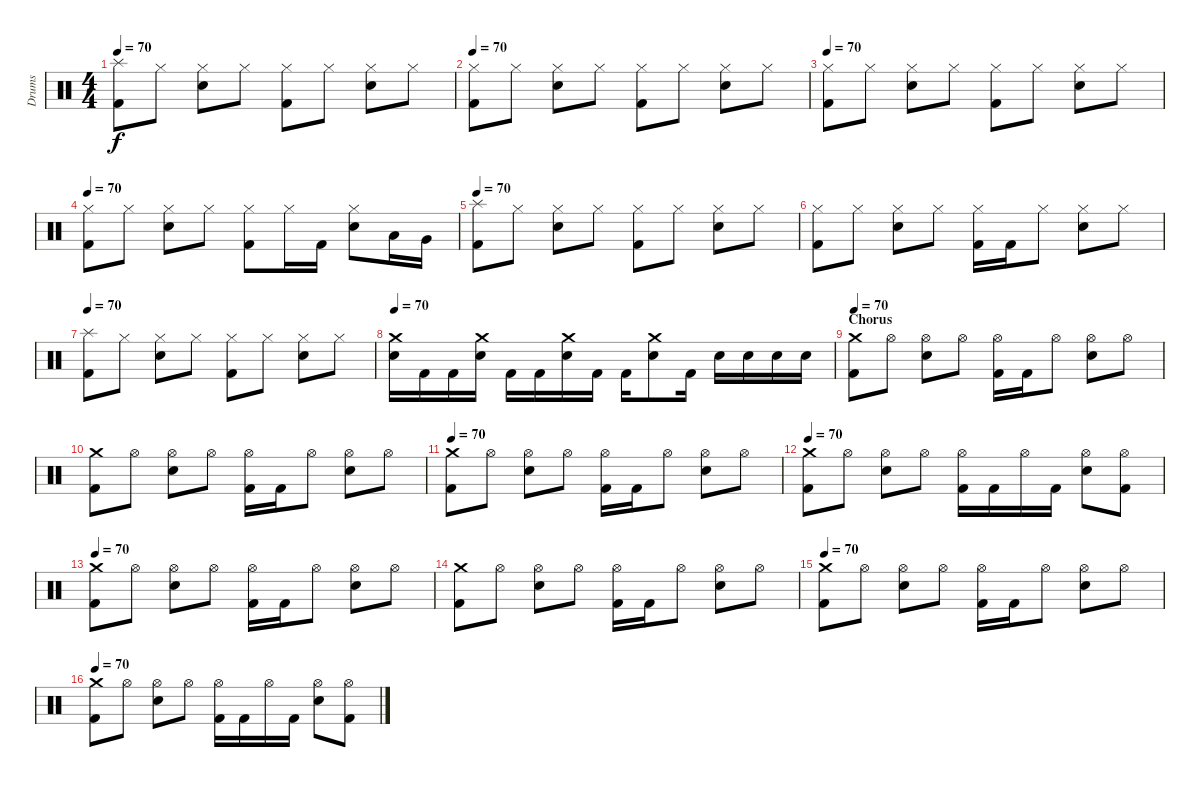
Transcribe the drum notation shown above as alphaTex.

\track ("Drums" "Drums") {instrument percussion}
\staff {score}
\articulation defaults
\ts (4 4)
\tempo 70
\clef neutral
\ks c
("Splash (hit)" "Kick (hit) 2").8{dy f} "Hi-Hat (closed)".8 ("Hi-Hat (closed)" "Snare (hit) 2").8 "Hi-Hat (closed)".8 ("Hi-Hat (closed)" "Kick (hit) 2").8 "Hi-Hat (closed)".8 ("Hi-Hat (closed)" "Snare (hit) 2").8 "Hi-Hat (closed)".8 |
\tempo 70
("Hi-Hat (closed)" "Kick (hit) 2").8 "Hi-Hat (closed)".8 ("Hi-Hat (closed)" "Snare (hit) 2").8 "Hi-Hat (closed)".8 ("Hi-Hat (closed)" "Kick (hit) 2").8 "Hi-Hat (closed)".8 ("Hi-Hat (closed)" "Snare (hit) 2").8 "Hi-Hat (closed)".8 |
\tempo 70
("Hi-Hat (closed)" "Kick (hit) 2").8 "Hi-Hat (closed)".8 ("Hi-Hat (closed)" "Snare (hit) 2").8 "Hi-Hat (closed)".8 ("Hi-Hat (closed)" "Kick (hit) 2").8 "Hi-Hat (closed)".8 ("Hi-Hat (closed)" "Snare (hit) 2").8 "Hi-Hat (closed)".8 |
\tempo 70
("Hi-Hat (closed)" "Kick (hit) 2").8 "Hi-Hat (closed)".8 ("Hi-Hat (closed)" "Snare (hit) 2").8 "Hi-Hat (closed)".8 ("Hi-Hat (closed)" "Kick (hit) 2").8 "Hi-Hat (closed)".16 "Kick (hit) 2".16 ("Hi-Hat (closed)" "Snare (hit) 2").8 "Low Tom (hit)".16 "Very Low Tom (hit)".16 |
\tempo 70
("Splash (hit)" "Kick (hit) 2").8 "Hi-Hat (closed)".8 ("Hi-Hat (closed)" "Snare (hit) 2").8 "Hi-Hat (closed)".8 ("Hi-Hat (closed)" "Kick (hit) 2").8 "Hi-Hat (closed)".8 ("Hi-Hat (closed)" "Snare (hit) 2").8 "Hi-Hat (closed)".8 |
("Hi-Hat (closed)" "Kick (hit) 2").8 "Hi-Hat (closed)".8 ("Hi-Hat (closed)" "Snare (hit) 2").8 "Hi-Hat (closed)".8 ("Hi-Hat (closed)" "Kick (hit) 2").16 "Kick (hit) 2".16 "Hi-Hat (closed)".8 ("Hi-Hat (closed)" "Snare (hit) 2").8 "Hi-Hat (closed)".8 |
\tempo 70
("Splash (hit)" "Kick (hit) 2").8 "Hi-Hat (closed)".8 ("Hi-Hat (closed)" "Snare (hit) 2").8 "Hi-Hat (closed)".8 ("Hi-Hat (closed)" "Kick (hit) 2").8 "Hi-Hat (closed)".8 ("Hi-Hat (closed)" "Snare (hit) 2").8 "Hi-Hat (closed)".8 |
\tempo 70
("Crash medium (hit)" "Snare (hit) 2").16 "Kick (hit) 2".16 "Kick (hit) 2".16 ("Crash medium (hit)" "Snare (hit) 2").16 "Kick (hit) 2".16 "Kick (hit) 2".16 ("Crash medium (hit)" "Snare (hit) 2").16 "Kick (hit) 2".16 "Kick (hit) 2".16 ("Crash medium (hit)" "Snare (hit) 2").8 "Kick (hit) 2".16 "Snare (hit) 2".16 "Snare (hit) 2".16 "Snare (hit) 2".16 "Snare (hit) 2".16 |
\section ("" "Chorus")
\tempo 70
("Crash medium (hit)" "Kick (hit) 2").8 "Hi-Hat (open)".8 ("Hi-Hat (open)" "Snare (hit) 2").8 "Hi-Hat (open)".8 ("Hi-Hat (open)" "Kick (hit) 2").16 "Kick (hit) 2".16 "Hi-Hat (open)".8 ("Hi-Hat (open)" "Snare (hit) 2").8 "Hi-Hat (open)".8 |
("Crash medium (hit)" "Kick (hit) 2").8 "Hi-Hat (open)".8 ("Hi-Hat (open)" "Snare (hit) 2").8 "Hi-Hat (open)".8 ("Hi-Hat (open)" "Kick (hit) 2").16 "Kick (hit) 2".16 "Hi-Hat (open)".8 ("Hi-Hat (open)" "Snare (hit) 2").8 "Hi-Hat (open)".8 |
\tempo 70
("Crash medium (hit)" "Kick (hit) 2").8 "Hi-Hat (open)".8 ("Hi-Hat (open)" "Snare (hit) 2").8 "Hi-Hat (open)".8 ("Hi-Hat (open)" "Kick (hit) 2").16 "Kick (hit) 2".16 "Hi-Hat (open)".8 ("Hi-Hat (open)" "Snare (hit) 2").8 "Hi-Hat (open)".8 |
\tempo 70
("Crash medium (hit)" "Kick (hit) 2").8 "Hi-Hat (open)".8 ("Hi-Hat (open)" "Snare (hit) 2").8 "Hi-Hat (open)".8 ("Hi-Hat (open)" "Kick (hit) 2").16 "Kick (hit) 2".16 "Hi-Hat (open)".16 "Kick (hit) 2".16 ("Hi-Hat (open)" "Snare (hit) 2").8 ("Hi-Hat (open)" "Kick (hit) 2").8 |
\tempo 70
("Crash medium (hit)" "Kick (hit) 2").8 "Hi-Hat (open)".8 ("Hi-Hat (open)" "Snare (hit) 2").8 "Hi-Hat (open)".8 ("Hi-Hat (open)" "Kick (hit) 2").16 "Kick (hit) 2".16 "Hi-Hat (open)".8 ("Hi-Hat (open)" "Snare (hit) 2").8 "Hi-Hat (open)".8 |
("Crash medium (hit)" "Kick (hit) 2").8 "Hi-Hat (open)".8 ("Hi-Hat (open)" "Snare (hit) 2").8 "Hi-Hat (open)".8 ("Hi-Hat (open)" "Kick (hit) 2").16 "Kick (hit) 2".16 "Hi-Hat (open)".8 ("Hi-Hat (open)" "Snare (hit) 2").8 "Hi-Hat (open)".8 |
\tempo 70
("Crash medium (hit)" "Kick (hit) 2").8 "Hi-Hat (open)".8 ("Hi-Hat (open)" "Snare (hit) 2").8 "Hi-Hat (open)".8 ("Hi-Hat (open)" "Kick (hit) 2").16 "Kick (hit) 2".16 "Hi-Hat (open)".8 ("Hi-Hat (open)" "Snare (hit) 2").8 "Hi-Hat (open)".8 |
\tempo 70
("Crash medium (hit)" "Kick (hit) 2").8 "Hi-Hat (open)".8 ("Hi-Hat (open)" "Snare (hit) 2").8 "Hi-Hat (open)".8 ("Hi-Hat (open)" "Kick (hit) 2").16 "Kick (hit) 2".16 "Hi-Hat (open)".16 "Kick (hit) 2".16 ("Hi-Hat (open)" "Snare (hit) 2").8 ("Hi-Hat (open)" "Kick (hit) 2").8
